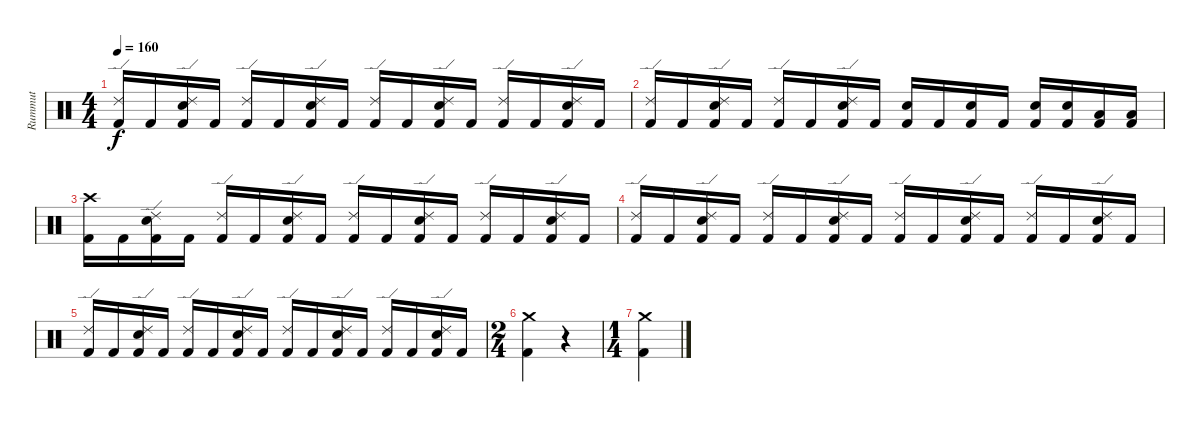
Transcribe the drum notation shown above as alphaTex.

\track ("Rummut" "Rummut") {instrument percussion}
\staff {score}
\articulation defaults
\ts (4 4)
\tempo 160
\clef neutral
\ks c
("Ride (edge) 2" "Kick (hit) 2").16{dy f} "Kick (hit) 2".16 ("Ride (edge) 2" "Snare (hit) 2" "Kick (hit) 2").16 "Kick (hit) 2".16 ("Ride (edge) 2" "Kick (hit) 2").16 "Kick (hit) 2".16 ("Ride (edge) 2" "Snare (hit) 2" "Kick (hit) 2").16 "Kick (hit) 2".16 ("Ride (edge) 2" "Kick (hit) 2").16 "Kick (hit) 2".16 ("Ride (edge) 2" "Snare (hit) 2" "Kick (hit) 2").16 "Kick (hit) 2".16 ("Ride (edge) 2" "Kick (hit) 2").16 "Kick (hit) 2".16 ("Ride (edge) 2" "Snare (hit) 2" "Kick (hit) 2").16 "Kick (hit) 2".16 |
("Ride (edge) 2" "Kick (hit) 2").16 "Kick (hit) 2".16 ("Ride (edge) 2" "Snare (hit) 2" "Kick (hit) 2").16 "Kick (hit) 2".16 ("Ride (edge) 2" "Kick (hit) 2").16 "Kick (hit) 2".16 ("Ride (edge) 2" "Snare (hit) 2" "Kick (hit) 2").16 "Kick (hit) 2".16 ("Snare (hit) 2" "Kick (hit) 2").16 "Kick (hit) 2".16 ("Snare (hit) 2" "Kick (hit) 2").16 "Kick (hit) 2".16 ("Snare (hit) 2" "Kick (hit) 2").16 ("Snare (hit) 2" "Kick (hit) 2").16 ("Low Tom (hit)" "Kick (hit) 2").16 ("Low Tom (hit)" "Kick (hit) 2").16 |
("Crash high (hit)" "Kick (hit) 2").16 "Kick (hit) 2".16 ("Ride (edge) 2" "Snare (hit) 2" "Kick (hit) 2").16 "Kick (hit) 2".16 ("Ride (edge) 2" "Kick (hit) 2").16 "Kick (hit) 2".16 ("Ride (edge) 2" "Snare (hit) 2" "Kick (hit) 2").16 "Kick (hit) 2".16 ("Ride (edge) 2" "Kick (hit) 2").16 "Kick (hit) 2".16 ("Ride (edge) 2" "Snare (hit) 2" "Kick (hit) 2").16 "Kick (hit) 2".16 ("Ride (edge) 2" "Kick (hit) 2").16 "Kick (hit) 2".16 ("Ride (edge) 2" "Snare (hit) 2" "Kick (hit) 2").16 "Kick (hit) 2".16 |
("Ride (edge) 2" "Kick (hit) 2").16 "Kick (hit) 2".16 ("Ride (edge) 2" "Snare (hit) 2" "Kick (hit) 2").16 "Kick (hit) 2".16 ("Ride (edge) 2" "Kick (hit) 2").16 "Kick (hit) 2".16 ("Ride (edge) 2" "Snare (hit) 2" "Kick (hit) 2").16 "Kick (hit) 2".16 ("Ride (edge) 2" "Kick (hit) 2").16 "Kick (hit) 2".16 ("Ride (edge) 2" "Snare (hit) 2" "Kick (hit) 2").16 "Kick (hit) 2".16 ("Ride (edge) 2" "Kick (hit) 2").16 "Kick (hit) 2".16 ("Ride (edge) 2" "Snare (hit) 2" "Kick (hit) 2").16 "Kick (hit) 2".16 |
("Ride (edge) 2" "Kick (hit) 2").16 "Kick (hit) 2".16 ("Ride (edge) 2" "Snare (hit) 2" "Kick (hit) 2").16 "Kick (hit) 2".16 ("Ride (edge) 2" "Kick (hit) 2").16 "Kick (hit) 2".16 ("Ride (edge) 2" "Snare (hit) 2" "Kick (hit) 2").16 "Kick (hit) 2".16 ("Ride (edge) 2" "Kick (hit) 2").16 "Kick (hit) 2".16 ("Ride (edge) 2" "Snare (hit) 2" "Kick (hit) 2").16 "Kick (hit) 2".16 ("Ride (edge) 2" "Kick (hit) 2").16 "Kick (hit) 2".16 ("Ride (edge) 2" "Snare (hit) 2" "Kick (hit) 2").16 "Kick (hit) 2".16 |
\ts (2 4)
("Crash medium (hit)" "Kick (hit) 2").4 r.4 |
\ts (1 4)
("Crash medium (hit)" "Kick (hit) 2").4
